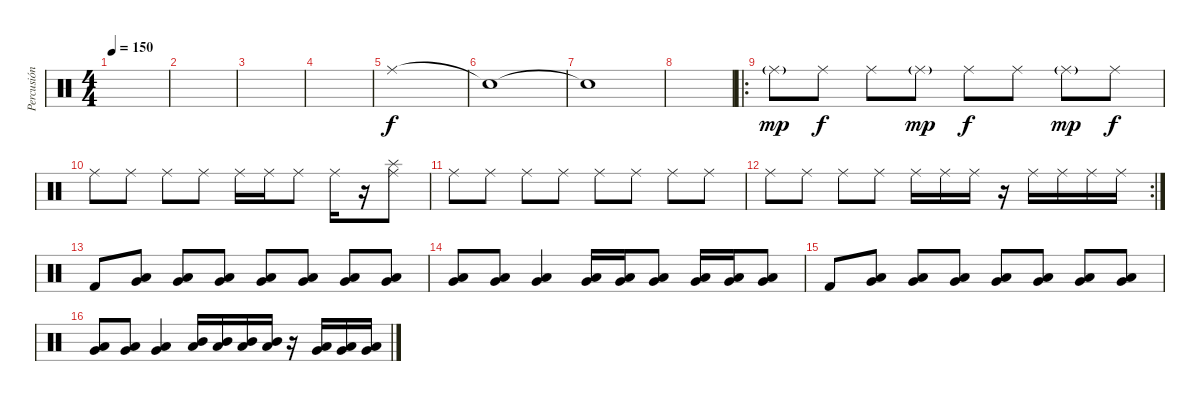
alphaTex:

\track ("Percusión" "Percusión") {instrument percussion}
\staff {score}
\articulation defaults
\ts (4 4)
\tempo 150
\clef neutral
\ks c
|
|
|
|
"Ride (middle)".1 |
"Snare (hit)"{t}.1 |
"Snare (hit)"{t}.1 |
|
\ro "Ride (middle)"{g}.8{dy mp} "Ride (middle)".8{dy f} "Ride (middle)".8 "Ride (middle)"{g}.8{dy mp} "Ride (middle)".8{dy f} "Ride (middle)".8 "Ride (middle)"{g}.8{dy mp} "Ride (middle)".8{dy f}
|
"Ride (middle)".8 "Ride (middle)".8 "Ride (middle)".8 "Ride (middle)".8 "Ride (middle)".16 "Ride (middle)".16 "Ride (middle)".8 "Ride (middle)".16 r.16 ("Ride (middle)" "Splash (hit)").8 |
"Ride (middle)".8 "Ride (middle)".8 "Ride (middle)".8 "Ride (middle)".8 "Ride (middle)".8 "Ride (middle)".8 "Ride (middle)".8 "Ride (middle)".8 |
\rc 2 "Ride (middle)".8 "Ride (middle)".8 "Ride (middle)".8 "Ride (middle)".8 "Ride (middle)".16 "Ride (middle)".16 "Ride (middle)".16
r.16 "Ride (middle)".16 "Ride (middle)".16 "Ride (middle)".16 "Ride (middle)".16 |
"Kick (hit) 2".8 ("Very Low Tom (hit)" "Low Tom (hit)").8 ("Very Low Tom (hit)" "Low Tom (hit)").8 ("Very Low Tom (hit)" "Low Tom (hit)").8 ("Very Low Tom (hit)" "Low Tom (hit)").8 ("Very Low Tom (hit)" "Low Tom (hit)").8 ("Very Low Tom (hit)" "Low Tom (hit)").8 ("Very Low Tom (hit)" "Low Tom (hit)").8 |
("Very Low Tom (hit)" "Low Tom (hit)").8 ("Very Low Tom (hit)" "Low Tom (hit)").8 ("Very Low Tom (hit)" "Low Tom (hit)").4 ("Very Low Tom (hit)" "Low Tom (hit)").16 ("Very Low Tom (hit)" "Low Tom (hit)").16 ("Very Low Tom (hit)" "Low Tom (hit)").8 ("Very Low Tom (hit)" "Low Tom (hit)").16 ("Very Low Tom (hit)" "Low Tom (hit)").16 ("Very Low Tom (hit)" "Low Tom (hit)").8 |
"Kick (hit) 2".8 ("Very Low Tom (hit)" "Low Tom (hit)").8 ("Very Low Tom (hit)" "Low Tom (hit)").8 ("Very Low Tom (hit)" "Low Tom (hit)").8 ("Very Low Tom (hit)" "Low Tom (hit)").8 ("Very Low Tom (hit)" "Low Tom (hit)").8 ("Very Low Tom (hit)" "Low Tom (hit)").8 ("Very Low Tom (hit)" "Low Tom (hit)").8 |
("Very Low Tom (hit)" "Low Tom (hit)").8 ("Very Low Tom (hit)" "Low Tom (hit)").8 ("Very Low Tom (hit)" "Low Tom (hit)").4 ("Mid Tom (hit)" "Low Tom (hit)").16 ("Mid Tom (hit)" "Low Tom (hit)").16 ("Mid Tom (hit)" "Low Tom (hit)").16 ("Mid Tom (hit)" "Low Tom (hit)").16 r.16 ("Very Low Tom (hit)" "Low Tom (hit)").16 ("Very Low Tom (hit)" "Low Tom (hit)").16 ("Very Low Tom (hit)" "Low Tom (hit)").16
